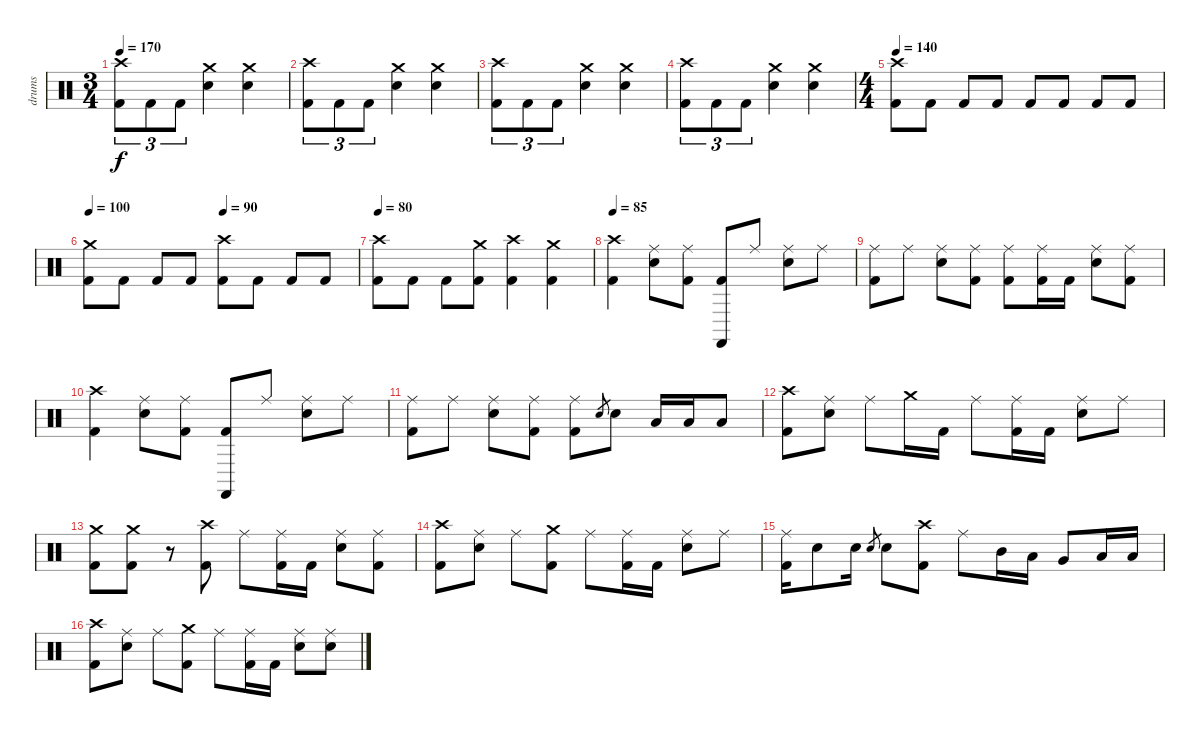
\track ("drums" "drums") {instrument percussion}
\staff {score}
\articulation defaults
\ts (3 4)
\tempo 170
\clef neutral
\ks c
("Crash high (hit)" "Kick (hit) 2").8{tu (3 2) dy f} "Kick (hit) 2".8{tu (3 2)} "Kick (hit) 2".8{tu (3 2)} ("Crash medium (hit)" "Electric Snare (hit)").4 ("Crash medium (hit)" "Electric Snare (hit)").4 |
("Crash high (hit)" "Kick (hit) 2").8{tu (3 2)} "Kick (hit) 2".8{tu (3 2)} "Kick (hit) 2".8{tu (3 2)} ("Crash medium (hit)" "Electric Snare (hit)").4 ("Crash medium (hit)" "Electric Snare (hit)").4 |
("Crash high (hit)" "Kick (hit) 2").8{tu (3 2)} "Kick (hit) 2".8{tu (3 2)} "Kick (hit) 2".8{tu (3 2)} ("Crash medium (hit)" "Electric Snare (hit)").4 ("Crash medium (hit)" "Electric Snare (hit)").4 |
("Crash high (hit)" "Kick (hit) 2").8{tu (3 2)} "Kick (hit) 2".8{tu (3 2)} "Kick (hit) 2".8{tu (3 2)} ("Crash medium (hit)" "Electric Snare (hit)").4 ("Crash medium (hit)" "Electric Snare (hit)").4 |
\ts (4 4)
\tempo 140
("Crash high (hit)" "Kick (hit) 2").8 "Kick (hit) 2".8 "Kick (hit) 2".8 "Kick (hit) 2".8 "Kick (hit) 2".8 "Kick (hit) 2".8 "Kick (hit) 2".8 "Kick (hit) 2".8 |
\tempo 100
\tempo (90 0.5)
("Crash medium (hit)" "Kick (hit) 2").8 "Kick (hit) 2".8 "Kick (hit) 2".8 "Kick (hit) 2".8 ("Crash high (hit)" "Kick (hit) 2").8 "Kick (hit) 2".8 "Kick (hit) 2".8 "Kick (hit) 2".8 |
\tempo 80
("Crash high (hit)" "Kick (hit) 2").8 "Kick (hit) 2".8 "Kick (hit) 2".8 ("Crash medium (hit)" "Kick (hit) 2").8 ("Crash high (hit)" "Kick (hit) 2").4 ("Crash medium (hit)" "Kick (hit) 2").4 |
\tempo 85
("Crash high (hit)" "Kick (hit) 2").4 ("Ride (middle)" "Electric Snare (hit)").8 ("Ride (middle)" "Kick (hit) 2").8 ("Castanets (hit)" "Kick (hit) 2").8 "Ride (middle)".8 ("Ride (middle)" "Electric Snare (hit)").8 "Ride (middle)".8 |
("Ride (middle)" "Kick (hit) 2").8 "Ride (middle)".8 ("Ride (middle)" "Electric Snare (hit)").8 ("Ride (middle)" "Kick (hit) 2").8 ("Ride (middle)" "Kick (hit) 2").8 ("Ride (middle)" "Kick (hit) 2").16 "Kick (hit) 2".16 ("Ride (middle)" "Electric Snare (hit)").8 ("Ride (middle)" "Kick (hit) 2").8 |
("Crash high (hit)" "Kick (hit) 2").4 ("Ride (middle)" "Electric Snare (hit)").8 ("Ride (middle)" "Kick (hit) 2").8 ("Castanets (hit)" "Kick (hit) 2").8 "Ride (middle)".8 ("Ride (middle)" "Electric Snare (hit)").8 "Ride (middle)".8 |
("Ride (middle)" "Kick (hit) 2").8 "Ride (middle)".8 ("Ride (middle)" "Electric Snare (hit)").8 ("Ride (middle)" "Kick (hit) 2").8 ("Ride (middle)" "Kick (hit) 2").8 "Electric Snare (hit)".8{gr} "Electric Snare (hit)".8 "Low Tom (hit)".16 "Low Tom (hit)".16 "Low Tom (hit)".8 |
("Crash high (hit)" "Kick (hit) 2").8 ("Ride (middle)" "Electric Snare (hit)").8 "Ride (middle)".8 "Crash medium (hit)".16 "Kick (hit) 2".16 "Ride (middle)".8 ("Ride (middle)" "Kick (hit) 2").16 "Kick (hit) 2".16 ("Ride (middle)" "Electric Snare (hit)").8 "Ride (middle)".8 |
("Crash medium (hit)" "Kick (hit) 2").8 ("Crash medium (hit)" "Kick (hit) 2").8 r.8 ("Crash high (hit)" "Kick (hit) 2").8 "Ride (middle)".8 ("Ride (middle)" "Kick (hit) 2").16 "Kick (hit) 2".16 ("Ride (middle)" "Electric Snare (hit)").8 ("Ride (middle)" "Kick (hit) 2").8 |
("Crash high (hit)" "Kick (hit) 2").8 ("Ride (middle)" "Electric Snare (hit)").8 "Ride (middle)".8 ("Crash medium (hit)" "Kick (hit) 2").8 "Ride (middle)".8 ("Ride (middle)" "Kick (hit) 2").16 "Kick (hit) 2".16 ("Ride (middle)" "Electric Snare (hit)").8 "Ride (middle)".8 |
("Ride (middle)" "Kick (hit) 2").16 "Electric Snare (hit)".8 "Electric Snare (hit)".16 "Electric Snare (hit)".8{gr} "Electric Snare (hit)".8 ("Crash high (hit)" "Kick (hit) 2").8 "Ride (middle)".8 "Mid Tom (hit)".16 "Low Tom (hit)".16 "Very Low Tom (hit)".8 "Low Floor Tom (hit)".16 "Low Floor Tom (hit)".16 |
("Crash high (hit)" "Kick (hit) 2").8 ("Ride (middle)" "Electric Snare (hit)").8 "Ride (middle)".8 ("Crash medium (hit)" "Kick (hit) 2").8 "Ride (middle)".8 ("Ride (middle)" "Kick (hit) 2").16 "Kick (hit) 2".16 ("Ride (middle)" "Electric Snare (hit)").8 ("Ride (middle)" "Electric Snare (hit)").8
